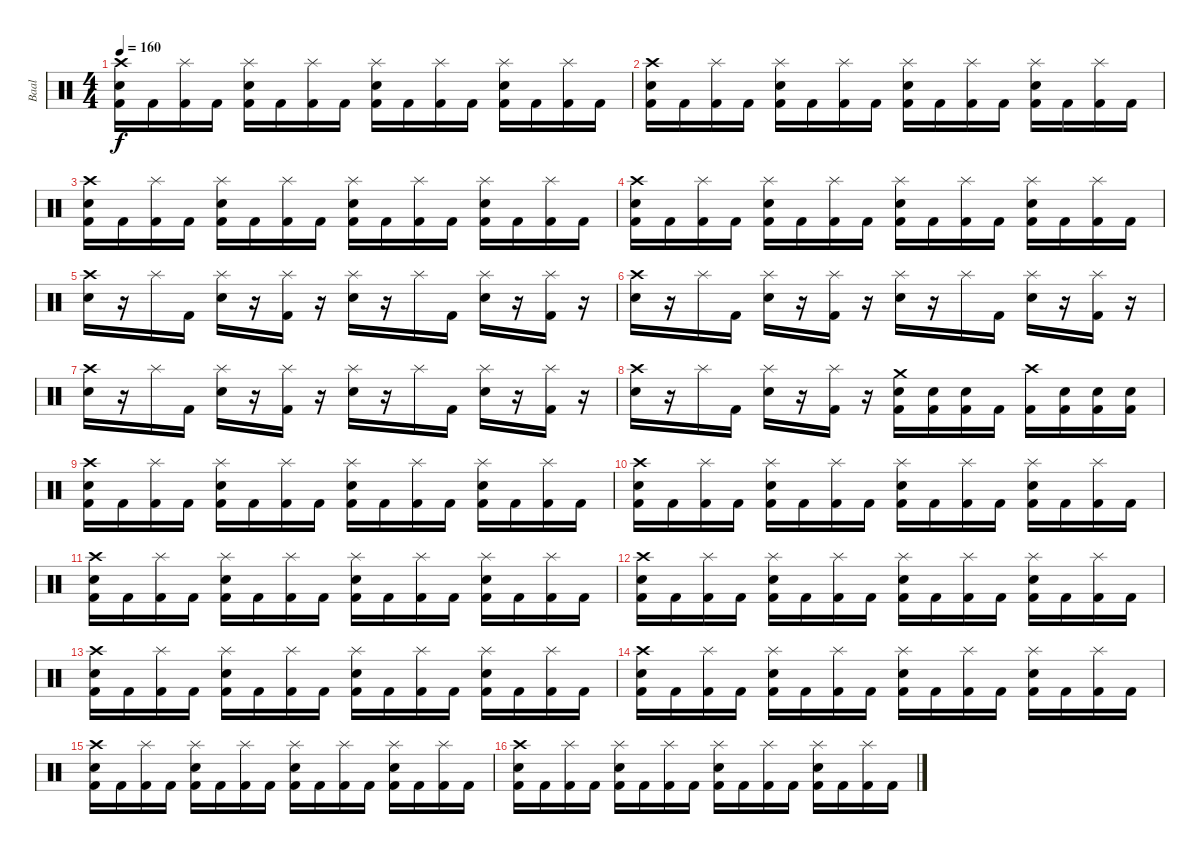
\track ("Baal" "Baal") {instrument percussion}
\staff {score}
\articulation defaults
\ts (4 4)
\tempo 160
\clef neutral
\ks c
("Crash high (hit)" "Electric Snare (hit)" "Kick (hit) 2").16{dy f} "Kick (hit) 2".16 ("Splash (hit)" "Kick (hit) 2").16 "Kick (hit) 2".16 ("Splash (hit)" "Electric Snare (hit)" "Kick (hit) 2").16 "Kick (hit) 2".16 ("Splash (hit)" "Kick (hit) 2").16 "Kick (hit) 2".16 ("Splash (hit)" "Electric Snare (hit)" "Kick (hit) 2").16 "Kick (hit) 2".16 ("Splash (hit)" "Kick (hit) 2").16 "Kick (hit) 2".16 ("Splash (hit)" "Electric Snare (hit)" "Kick (hit) 2").16 "Kick (hit) 2".16 ("Splash (hit)" "Kick (hit) 2").16 "Kick (hit) 2".16 |
("Crash high (hit)" "Electric Snare (hit)" "Kick (hit) 2").16 "Kick (hit) 2".16 ("Splash (hit)" "Kick (hit) 2").16 "Kick (hit) 2".16 ("Splash (hit)" "Electric Snare (hit)" "Kick (hit) 2").16 "Kick (hit) 2".16 ("Splash (hit)" "Kick (hit) 2").16 "Kick (hit) 2".16 ("Splash (hit)" "Electric Snare (hit)" "Kick (hit) 2").16 "Kick (hit) 2".16 ("Splash (hit)" "Kick (hit) 2").16 "Kick (hit) 2".16 ("Splash (hit)" "Electric Snare (hit)" "Kick (hit) 2").16 "Kick (hit) 2".16 ("Splash (hit)" "Kick (hit) 2").16 "Kick (hit) 2".16 |
("Crash high (hit)" "Electric Snare (hit)" "Kick (hit) 2").16 "Kick (hit) 2".16 ("Splash (hit)" "Kick (hit) 2").16 "Kick (hit) 2".16 ("Splash (hit)" "Electric Snare (hit)" "Kick (hit) 2").16 "Kick (hit) 2".16 ("Splash (hit)" "Kick (hit) 2").16 "Kick (hit) 2".16 ("Splash (hit)" "Electric Snare (hit)" "Kick (hit) 2").16 "Kick (hit) 2".16 ("Splash (hit)" "Kick (hit) 2").16 "Kick (hit) 2".16 ("Splash (hit)" "Electric Snare (hit)" "Kick (hit) 2").16 "Kick (hit) 2".16 ("Splash (hit)" "Kick (hit) 2").16 "Kick (hit) 2".16 |
("Crash high (hit)" "Electric Snare (hit)" "Kick (hit) 2").16 "Kick (hit) 2".16 ("Splash (hit)" "Kick (hit) 2").16 "Kick (hit) 2".16 ("Splash (hit)" "Electric Snare (hit)" "Kick (hit) 2").16 "Kick (hit) 2".16 ("Splash (hit)" "Kick (hit) 2").16 "Kick (hit) 2".16 ("Splash (hit)" "Electric Snare (hit)" "Kick (hit) 2").16 "Kick (hit) 2".16 ("Splash (hit)" "Kick (hit) 2").16 "Kick (hit) 2".16 ("Splash (hit)" "Electric Snare (hit)" "Kick (hit) 2").16 "Kick (hit) 2".16 ("Splash (hit)" "Kick (hit) 2").16 "Kick (hit) 2".16 |
("Crash high (hit)" "Electric Snare (hit)").16 r.16 "Splash (hit)".16 "Kick (hit) 2".16 ("Splash (hit)" "Electric Snare (hit)").16 r.16 ("Splash (hit)" "Kick (hit) 2").16 r.16 ("Splash (hit)" "Electric Snare (hit)").16 r.16 "Splash (hit)".16 "Kick (hit) 2".16 ("Splash (hit)" "Electric Snare (hit)").16 r.16 ("Splash (hit)" "Kick (hit) 2").16 r.16 |
("Crash high (hit)" "Electric Snare (hit)").16 r.16 "Splash (hit)".16 "Kick (hit) 2".16 ("Splash (hit)" "Electric Snare (hit)").16 r.16 ("Splash (hit)" "Kick (hit) 2").16 r.16 ("Splash (hit)" "Electric Snare (hit)").16 r.16 "Splash (hit)".16 "Kick (hit) 2".16 ("Splash (hit)" "Electric Snare (hit)").16 r.16 ("Splash (hit)" "Kick (hit) 2").16 r.16 |
("Crash high (hit)" "Electric Snare (hit)").16 r.16 "Splash (hit)".16 "Kick (hit) 2".16 ("Splash (hit)" "Electric Snare (hit)").16 r.16 ("Splash (hit)" "Kick (hit) 2").16 r.16 ("Splash (hit)" "Electric Snare (hit)").16 r.16 "Splash (hit)".16 "Kick (hit) 2".16 ("Splash (hit)" "Electric Snare (hit)").16 r.16 ("Splash (hit)" "Kick (hit) 2").16 r.16 |
("Crash high (hit)" "Electric Snare (hit)").16 r.16 "Splash (hit)".16 "Kick (hit) 2".16 ("Splash (hit)" "Electric Snare (hit)").16 r.16 ("Splash (hit)" "Kick (hit) 2").16 r.16 ("Crash medium (hit)" "Electric Snare (hit)" "Kick (hit) 2").16 ("Electric Snare (hit)" "Kick (hit) 2").16 ("Electric Snare (hit)" "Kick (hit) 2").16 "Kick (hit) 2".16 ("Crash high (hit)" "Kick (hit) 2").16 ("Electric Snare (hit)" "Kick (hit) 2").16 ("Electric Snare (hit)" "Kick (hit) 2").16 ("Electric Snare (hit)" "Kick (hit) 2").16 |
("Crash high (hit)" "Electric Snare (hit)" "Kick (hit) 2").16 "Kick (hit) 2".16 ("Splash (hit)" "Kick (hit) 2").16 "Kick (hit) 2".16 ("Splash (hit)" "Electric Snare (hit)" "Kick (hit) 2").16 "Kick (hit) 2".16 ("Splash (hit)" "Kick (hit) 2").16 "Kick (hit) 2".16 ("Splash (hit)" "Electric Snare (hit)" "Kick (hit) 2").16 "Kick (hit) 2".16 ("Splash (hit)" "Kick (hit) 2").16 "Kick (hit) 2".16 ("Splash (hit)" "Electric Snare (hit)" "Kick (hit) 2").16 "Kick (hit) 2".16 ("Splash (hit)" "Kick (hit) 2").16 "Kick (hit) 2".16 |
("Crash high (hit)" "Electric Snare (hit)" "Kick (hit) 2").16 "Kick (hit) 2".16 ("Splash (hit)" "Kick (hit) 2").16 "Kick (hit) 2".16 ("Splash (hit)" "Electric Snare (hit)" "Kick (hit) 2").16 "Kick (hit) 2".16 ("Splash (hit)" "Kick (hit) 2").16 "Kick (hit) 2".16 ("Splash (hit)" "Electric Snare (hit)" "Kick (hit) 2").16 "Kick (hit) 2".16 ("Splash (hit)" "Kick (hit) 2").16 "Kick (hit) 2".16 ("Splash (hit)" "Electric Snare (hit)" "Kick (hit) 2").16 "Kick (hit) 2".16 ("Splash (hit)" "Kick (hit) 2").16 "Kick (hit) 2".16 |
("Crash high (hit)" "Electric Snare (hit)" "Kick (hit) 2").16 "Kick (hit) 2".16 ("Splash (hit)" "Kick (hit) 2").16 "Kick (hit) 2".16 ("Splash (hit)" "Electric Snare (hit)" "Kick (hit) 2").16 "Kick (hit) 2".16 ("Splash (hit)" "Kick (hit) 2").16 "Kick (hit) 2".16 ("Splash (hit)" "Electric Snare (hit)" "Kick (hit) 2").16 "Kick (hit) 2".16 ("Splash (hit)" "Kick (hit) 2").16 "Kick (hit) 2".16 ("Splash (hit)" "Electric Snare (hit)" "Kick (hit) 2").16 "Kick (hit) 2".16 ("Splash (hit)" "Kick (hit) 2").16 "Kick (hit) 2".16 |
("Crash high (hit)" "Electric Snare (hit)" "Kick (hit) 2").16 "Kick (hit) 2".16 ("Splash (hit)" "Kick (hit) 2").16 "Kick (hit) 2".16 ("Splash (hit)" "Electric Snare (hit)" "Kick (hit) 2").16 "Kick (hit) 2".16 ("Splash (hit)" "Kick (hit) 2").16 "Kick (hit) 2".16 ("Splash (hit)" "Electric Snare (hit)" "Kick (hit) 2").16 "Kick (hit) 2".16 ("Splash (hit)" "Kick (hit) 2").16 "Kick (hit) 2".16 ("Splash (hit)" "Electric Snare (hit)" "Kick (hit) 2").16 "Kick (hit) 2".16 ("Splash (hit)" "Kick (hit) 2").16 "Kick (hit) 2".16 |
("Crash high (hit)" "Electric Snare (hit)" "Kick (hit) 2").16 "Kick (hit) 2".16 ("Splash (hit)" "Kick (hit) 2").16 "Kick (hit) 2".16 ("Splash (hit)" "Electric Snare (hit)" "Kick (hit) 2").16 "Kick (hit) 2".16 ("Splash (hit)" "Kick (hit) 2").16 "Kick (hit) 2".16 ("Splash (hit)" "Electric Snare (hit)" "Kick (hit) 2").16 "Kick (hit) 2".16 ("Splash (hit)" "Kick (hit) 2").16 "Kick (hit) 2".16 ("Splash (hit)" "Electric Snare (hit)" "Kick (hit) 2").16 "Kick (hit) 2".16 ("Splash (hit)" "Kick (hit) 2").16 "Kick (hit) 2".16 |
("Crash high (hit)" "Electric Snare (hit)" "Kick (hit) 2").16 "Kick (hit) 2".16 ("Splash (hit)" "Kick (hit) 2").16 "Kick (hit) 2".16 ("Splash (hit)" "Electric Snare (hit)" "Kick (hit) 2").16 "Kick (hit) 2".16 ("Splash (hit)" "Kick (hit) 2").16 "Kick (hit) 2".16 ("Splash (hit)" "Electric Snare (hit)" "Kick (hit) 2").16 "Kick (hit) 2".16 ("Splash (hit)" "Kick (hit) 2").16 "Kick (hit) 2".16 ("Splash (hit)" "Electric Snare (hit)" "Kick (hit) 2").16 "Kick (hit) 2".16 ("Splash (hit)" "Kick (hit) 2").16 "Kick (hit) 2".16 |
("Crash high (hit)" "Electric Snare (hit)" "Kick (hit) 2").16 "Kick (hit) 2".16 ("Splash (hit)" "Kick (hit) 2").16 "Kick (hit) 2".16 ("Splash (hit)" "Electric Snare (hit)" "Kick (hit) 2").16 "Kick (hit) 2".16 ("Splash (hit)" "Kick (hit) 2").16 "Kick (hit) 2".16 ("Splash (hit)" "Electric Snare (hit)" "Kick (hit) 2").16 "Kick (hit) 2".16 ("Splash (hit)" "Kick (hit) 2").16 "Kick (hit) 2".16 ("Splash (hit)" "Electric Snare (hit)" "Kick (hit) 2").16 "Kick (hit) 2".16 ("Splash (hit)" "Kick (hit) 2").16 "Kick (hit) 2".16 |
("Crash high (hit)" "Electric Snare (hit)" "Kick (hit) 2").16 "Kick (hit) 2".16 ("Splash (hit)" "Kick (hit) 2").16 "Kick (hit) 2".16 ("Splash (hit)" "Electric Snare (hit)" "Kick (hit) 2").16 "Kick (hit) 2".16 ("Splash (hit)" "Kick (hit) 2").16 "Kick (hit) 2".16 ("Splash (hit)" "Electric Snare (hit)" "Kick (hit) 2").16 "Kick (hit) 2".16 ("Splash (hit)" "Kick (hit) 2").16 "Kick (hit) 2".16 ("Splash (hit)" "Electric Snare (hit)" "Kick (hit) 2").16 "Kick (hit) 2".16 ("Splash (hit)" "Kick (hit) 2").16 "Kick (hit) 2".16
